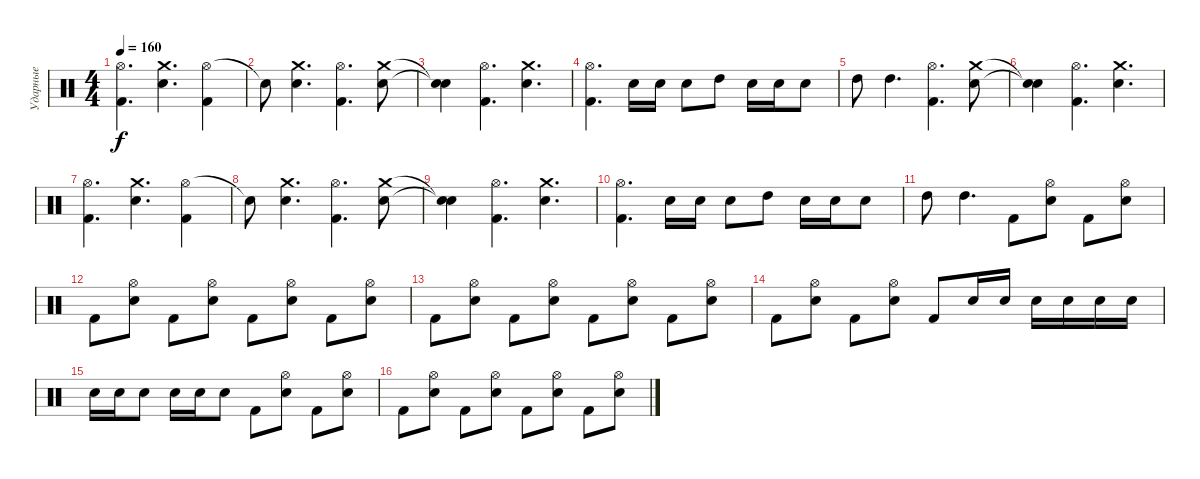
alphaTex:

\track ("Ударные" "Ударные") {instrument percussion}
\staff {score}
\articulation defaults
\ts (4 4)
\tempo 160
\clef neutral
\ks c
("Hi-Hat (open)" "Kick (hit) 2").4{d dy f} ("Crash medium (hit)" "Electric Snare (hit)").4{d} ("Hi-Hat (open)" "Kick (hit) 2").4 |
"Snare (hit)"{t}.8 ("Crash medium (hit)" "Electric Snare (hit)").4{d} ("Hi-Hat (open)" "Kick (hit) 2").4{d} ("Crash medium (hit)" "Electric Snare (hit)").8 |
("Snare (hit)"{t} "Snare (hit)"{t}).4 ("Hi-Hat (open)" "Kick (hit) 2").4{d} ("Crash medium (hit)" "Electric Snare (hit)").4{d} |
("Hi-Hat (open)" "Kick (hit) 2").4{d} "Electric Snare (hit)".16 "Electric Snare (hit)".16 "Electric Snare (hit)".8 "High Tom (hit)".8 "Electric Snare (hit)".16 "Electric Snare (hit)".16 "Electric Snare (hit)".8 |
"High Tom (hit)".8 "High Tom (hit)".4{d} ("Hi-Hat (open)" "Kick (hit) 2").4{d} ("Crash medium (hit)" "Electric Snare (hit)").8 |
("Snare (hit)"{t} "Snare (hit)"{t}).4 ("Hi-Hat (open)" "Kick (hit) 2").4{d} ("Crash medium (hit)" "Electric Snare (hit)").4{d} |
("Hi-Hat (open)" "Kick (hit) 2").4{d} ("Crash medium (hit)" "Electric Snare (hit)").4{d} ("Hi-Hat (open)" "Kick (hit) 2").4 |
"Snare (hit)"{t}.8 ("Crash medium (hit)" "Electric Snare (hit)").4{d} ("Hi-Hat (open)" "Kick (hit) 2").4{d} ("Crash medium (hit)" "Electric Snare (hit)").8 |
("Snare (hit)"{t} "Snare (hit)"{t}).4 ("Hi-Hat (open)" "Kick (hit) 2").4{d} ("Crash medium (hit)" "Electric Snare (hit)").4{d} |
("Hi-Hat (open)" "Kick (hit) 2").4{d} "Electric Snare (hit)".16 "Electric Snare (hit)".16 "Electric Snare (hit)".8 "High Tom (hit)".8 "Electric Snare (hit)".16 "Electric Snare (hit)".16 "Electric Snare (hit)".8 |
"High Tom (hit)".8 "High Tom (hit)".4{d} "Kick (hit) 2".8 ("Hi-Hat (open)" "Electric Snare (hit)").8 "Kick (hit) 2".8 ("Hi-Hat (open)" "Electric Snare (hit)").8 |
"Kick (hit) 2".8 ("Hi-Hat (open)" "Electric Snare (hit)").8 "Kick (hit) 2".8 ("Hi-Hat (open)" "Electric Snare (hit)").8 "Kick (hit) 2".8 ("Hi-Hat (open)" "Electric Snare (hit)").8 "Kick (hit) 2".8 ("Hi-Hat (open)" "Electric Snare (hit)").8 |
"Kick (hit) 2".8 ("Hi-Hat (open)" "Electric Snare (hit)").8 "Kick (hit) 2".8 ("Hi-Hat (open)" "Electric Snare (hit)").8 "Kick (hit) 2".8 ("Hi-Hat (open)" "Electric Snare (hit)").8 "Kick (hit) 2".8 ("Hi-Hat (open)" "Electric Snare (hit)").8 |
"Kick (hit) 2".8 ("Hi-Hat (open)" "Electric Snare (hit)").8 "Kick (hit) 2".8 ("Hi-Hat (open)" "Electric Snare (hit)").8 "Kick (hit) 2".8 "Electric Snare (hit)".16 "Electric Snare (hit)".16 "Electric Snare (hit)".16 "Electric Snare (hit)".16 "Electric Snare (hit)".16 "Electric Snare (hit)".16 |
"Electric Snare (hit)".16 "Electric Snare (hit)".16 "Electric Snare (hit)".8 "Electric Snare (hit)".16 "Electric Snare (hit)".16 "Electric Snare (hit)".8 "Kick (hit) 2".8 ("Hi-Hat (open)" "Electric Snare (hit)").8 "Kick (hit) 2".8 ("Hi-Hat (open)" "Electric Snare (hit)").8 |
"Kick (hit) 2".8 ("Hi-Hat (open)" "Electric Snare (hit)").8 "Kick (hit) 2".8 ("Hi-Hat (open)" "Electric Snare (hit)").8 "Kick (hit) 2".8 ("Hi-Hat (open)" "Electric Snare (hit)").8 "Kick (hit) 2".8 ("Hi-Hat (open)" "Electric Snare (hit)").8
